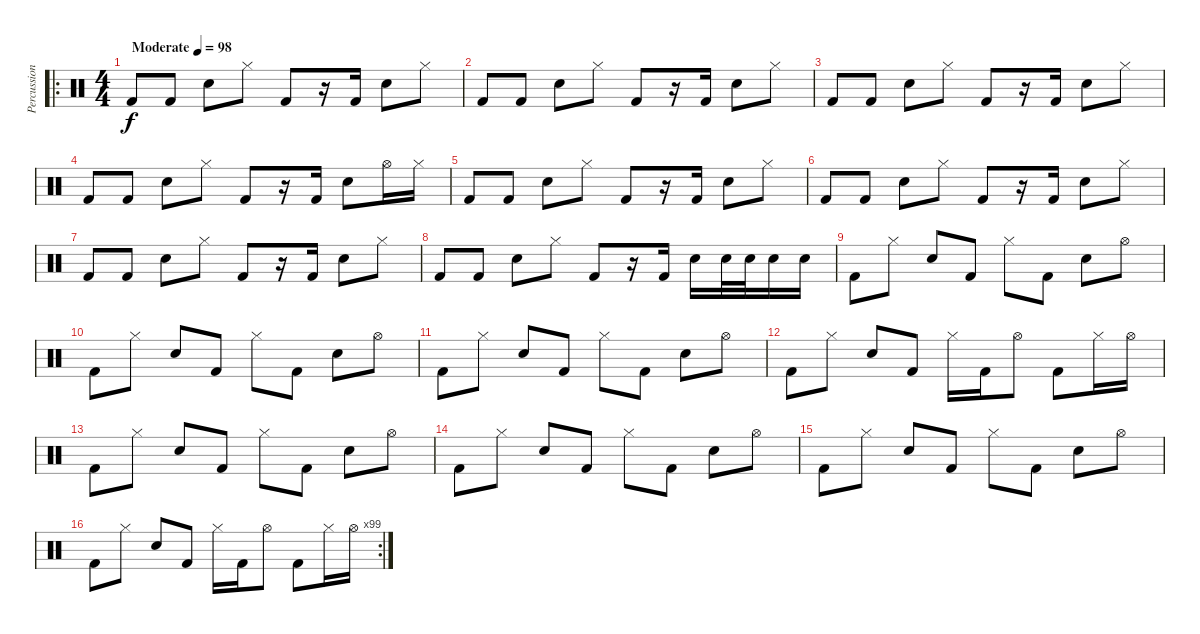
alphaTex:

\track ("Percussion" "Percussion") {instrument percussion}
\staff {score}
\articulation defaults
\ro
\ts (4 4)
\tempo (98 "Moderate")
\clef neutral
\ks c "Kick (hit) 2".8{dy f} "Kick (hit) 2".8 "Electric Snare (hit)".8 "Hi-Hat (closed)".8 "Kick (hit) 2".8
r.16 "Kick (hit) 2".16 "Electric Snare (hit)".8 "Hi-Hat (closed)".8 |
"Kick (hit) 2".8 "Kick (hit) 2".8 "Electric Snare (hit)".8 "Hi-Hat (closed)".8 "Kick (hit) 2".8 r.16 "Kick (hit) 2".16 "Electric Snare (hit)".8 "Hi-Hat (closed)".8 |
"Kick (hit) 2".8 "Kick (hit) 2".8 "Electric Snare (hit)".8 "Hi-Hat (closed)".8 "Kick (hit) 2".8 r.16 "Kick (hit) 2".16 "Electric Snare (hit)".8 "Hi-Hat (closed)".8 |
"Kick (hit) 2".8 "Kick (hit) 2".8 "Electric Snare (hit)".8 "Hi-Hat (closed)".8 "Kick (hit) 2".8 r.16 "Kick (hit) 2".16 "Electric Snare (hit)".8 "Hi-Hat (open)".16 "Hi-Hat (closed)".16 |
"Kick (hit) 2".8 "Kick (hit) 2".8 "Electric Snare (hit)".8 "Hi-Hat (closed)".8 "Kick (hit) 2".8 r.16 "Kick (hit) 2".16 "Electric Snare (hit)".8 "Hi-Hat (closed)".8 |
"Kick (hit) 2".8 "Kick (hit) 2".8 "Electric Snare (hit)".8 "Hi-Hat (closed)".8 "Kick (hit) 2".8 r.16 "Kick (hit) 2".16 "Electric Snare (hit)".8 "Hi-Hat (closed)".8 |
"Kick (hit) 2".8 "Kick (hit) 2".8 "Electric Snare (hit)".8 "Hi-Hat (closed)".8 "Kick (hit) 2".8 r.16 "Kick (hit) 2".16 "Electric Snare (hit)".8 "Hi-Hat (closed)".8 |
"Kick (hit) 2".8 "Kick (hit) 2".8 "Electric Snare (hit)".8 "Hi-Hat (closed)".8 "Kick (hit) 2".8 r.16 "Kick (hit) 2".16 "Electric Snare (hit)".16 "Electric Snare (hit)".32 "Electric Snare (hit)".32 "Electric Snare (hit)".16 "Electric Snare (hit)".16 |
"Kick (hit) 2".8 "Hi-Hat (closed)".8 "Snare (hit) 2".8 "Kick (hit) 2".8 "Hi-Hat (closed)".8 "Kick (hit) 2".8 "Snare (hit) 2".8 "Hi-Hat (open)".8 |
"Kick (hit) 2".8 "Hi-Hat (closed)".8 "Snare (hit) 2".8 "Kick (hit) 2".8 "Hi-Hat (closed)".8 "Kick (hit) 2".8 "Snare (hit) 2".8 "Hi-Hat (open)".8 |
"Kick (hit) 2".8 "Hi-Hat (closed)".8 "Snare (hit) 2".8 "Kick (hit) 2".8 "Hi-Hat (closed)".8 "Kick (hit) 2".8 "Snare (hit) 2".8 "Hi-Hat (open)".8 |
"Kick (hit) 2".8 "Hi-Hat (closed)".8 "Snare (hit) 2".8 "Kick (hit) 2".8 "Hi-Hat (closed)".16 "Kick (hit) 2".16 "Hi-Hat (open)".8 "Kick (hit) 2".8 "Hi-Hat (closed)".16 "Hi-Hat (open)".16 |
"Kick (hit) 2".8 "Hi-Hat (closed)".8 "Snare (hit) 2".8 "Kick (hit) 2".8 "Hi-Hat (closed)".8 "Kick (hit) 2".8 "Snare (hit) 2".8 "Hi-Hat (open)".8 |
"Kick (hit) 2".8 "Hi-Hat (closed)".8 "Snare (hit) 2".8 "Kick (hit) 2".8 "Hi-Hat (closed)".8 "Kick (hit) 2".8 "Snare (hit) 2".8 "Hi-Hat (open)".8 |
"Kick (hit) 2".8 "Hi-Hat (closed)".8 "Snare (hit) 2".8 "Kick (hit) 2".8 "Hi-Hat (closed)".8 "Kick (hit) 2".8 "Snare (hit) 2".8 "Hi-Hat (open)".8 |
\rc 99 "Kick (hit) 2".8 "Hi-Hat (closed)".8 "Snare (hit) 2".8 "Kick (hit) 2".8 "Hi-Hat (closed)".16 "Kick (hit) 2".16 "Hi-Hat (open)".8 "Kick (hit) 2".8 "Hi-Hat (closed)".16 "Hi-Hat (open)".16
